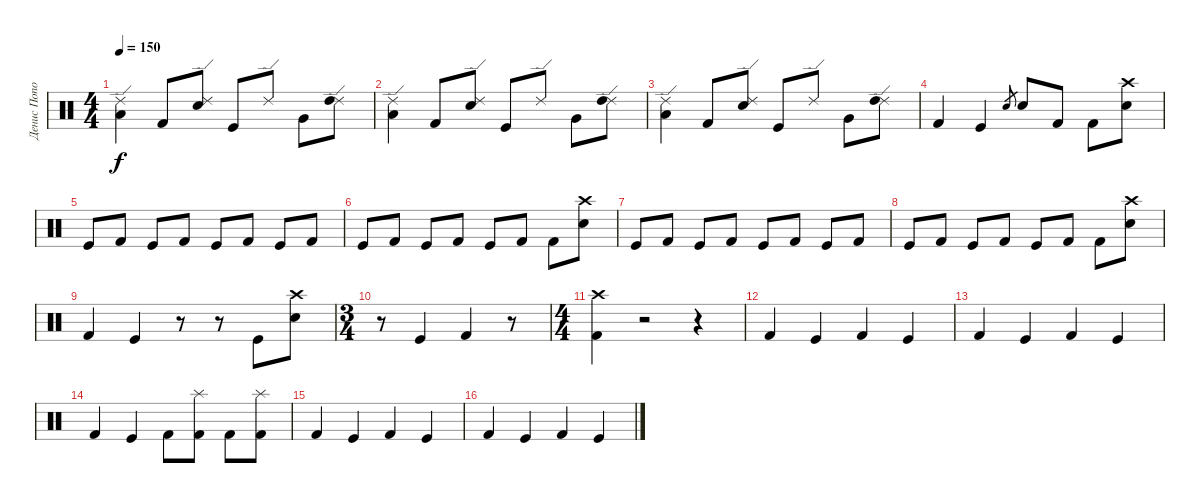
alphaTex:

\track ("Денис Попов" "Денис Попо") {instrument percussion}
\staff
\articulation defaults
\ts (4 4)
\tempo 150
\clef neutral
\ks c
("Ride (edge) 2" "Low Tom (hit)").4{dy f} "Kick (hit) 2".8 ("Ride (edge) 2" "Electric Snare (hit)").8 "Kick (hit)".8 "Ride (edge) 2".8 "Very Low Tom (hit)".8 ("Ride (edge) 2" "High Tom (hit)").8 |
("Ride (edge) 2" "Low Tom (hit)").4 "Kick (hit) 2".8 ("Ride (edge) 2" "Electric Snare (hit)").8 "Kick (hit)".8 "Ride (edge) 2".8 "Very Low Tom (hit)".8 ("Ride (edge) 2" "High Tom (hit)").8 |
("Ride (edge) 2" "Low Tom (hit)").4 "Kick (hit) 2".8 ("Ride (edge) 2" "Electric Snare (hit)").8 "Kick (hit)".8 "Ride (edge) 2".8 "Very Low Tom (hit)".8 ("Ride (edge) 2" "High Tom (hit)").8 |
"Kick (hit) 2".4 "Kick (hit)".4 "Electric Snare (hit)".8{gr} "Electric Snare (hit)".8 "Kick (hit) 2".8 "Kick (hit) 2".8 ("Crash high (hit)" "Snare (hit) 2").8 |
"Kick (hit)".8 "Kick (hit) 2".8 "Kick (hit)".8 "Kick (hit) 2".8 "Kick (hit)".8 "Kick (hit) 2".8 "Kick (hit)".8 "Kick (hit) 2".8 |
"Kick (hit)".8 "Kick (hit) 2".8 "Kick (hit)".8 "Kick (hit) 2".8 "Kick (hit)".8 "Kick (hit) 2".8 "Kick (hit) 2".8 ("Crash high (hit)" "Snare (hit) 2").8 |
"Kick (hit)".8 "Kick (hit) 2".8 "Kick (hit)".8 "Kick (hit) 2".8 "Kick (hit)".8 "Kick (hit) 2".8 "Kick (hit)".8 "Kick (hit) 2".8 |
"Kick (hit)".8 "Kick (hit) 2".8 "Kick (hit)".8 "Kick (hit) 2".8 "Kick (hit)".8 "Kick (hit) 2".8 "Kick (hit) 2".8 ("Crash high (hit)" "Snare (hit) 2").8 |
"Kick (hit) 2".4 "Kick (hit)".4 r.8 r.8 "Kick (hit)".8 ("Crash high (hit)" "Snare (hit) 2").8 |
\ts (3 4)
r.8 "Kick (hit)".4 "Kick (hit) 2".4 r.8 |
\ts (4 4)
("Crash high (hit)" "Kick (hit) 2").4 r.2 r.4 |
"Kick (hit) 2".4 "Kick (hit)".4 "Kick (hit) 2".4 "Kick (hit)".4 |
"Kick (hit) 2".4 "Kick (hit)".4 "Kick (hit) 2".4 "Kick (hit)".4 |
"Kick (hit) 2".4 "Kick (hit)".4 "Kick (hit) 2".8 ("Splash (hit)" "Kick (hit) 2").8 "Kick (hit) 2".8 ("Splash (hit)" "Kick (hit) 2").8 |
"Kick (hit) 2".4 "Kick (hit)".4 "Kick (hit) 2".4 "Kick (hit)".4 |
"Kick (hit) 2".4 "Kick (hit)".4 "Kick (hit) 2".4 "Kick (hit)".4
